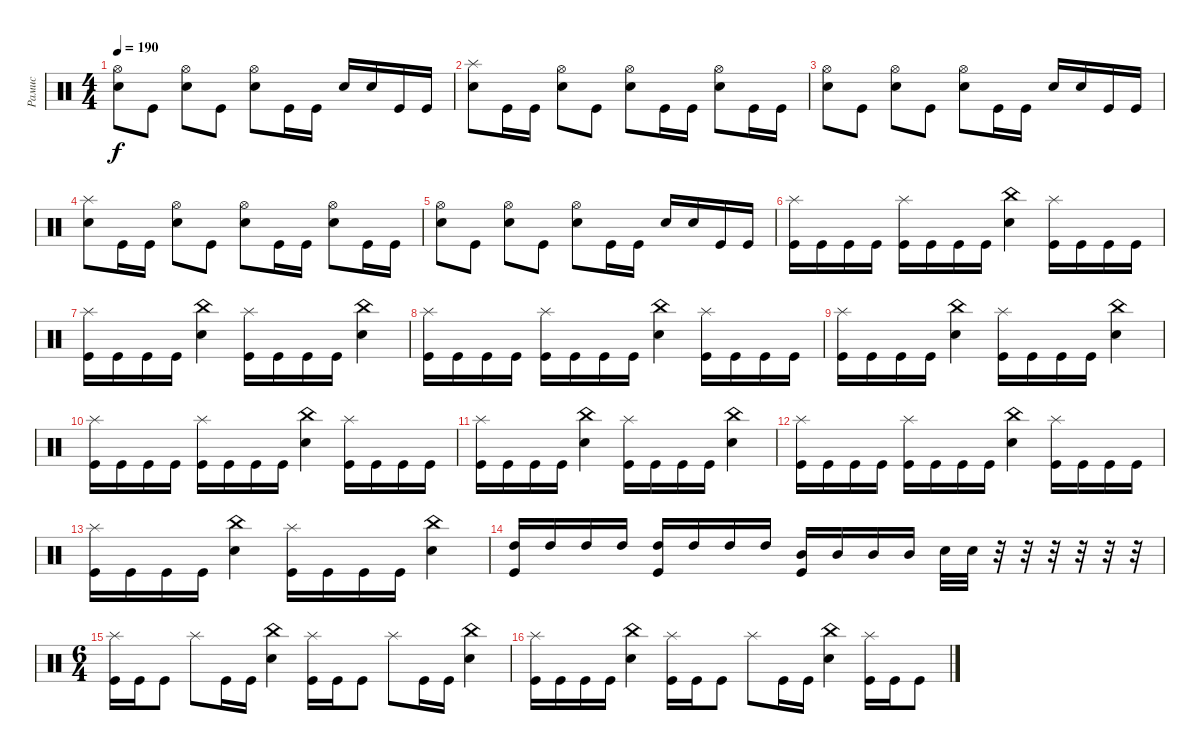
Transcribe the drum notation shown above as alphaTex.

\track ("Рамис" "Рамис") {instrument percussion}
\staff {score}
\articulation defaults
\ts (4 4)
\tempo 190
\clef neutral
\ks c
("Hi-Hat (open)" "Electric Snare (hit)").8{dy f} "Kick (hit)".8 ("Hi-Hat (open)" "Electric Snare (hit)").8 "Kick (hit)".8 ("Hi-Hat (open)" "Electric Snare (hit)").8 "Kick (hit)".16 "Kick (hit)".16 "Electric Snare (hit)".16 "Electric Snare (hit)".16 "Kick (hit)".16 "Kick (hit)".16 |
("Splash (hit)" "Electric Snare (hit)").8 "Kick (hit)".16 "Kick (hit)".16 ("Hi-Hat (open)" "Electric Snare (hit)").8 "Kick (hit)".8 ("Hi-Hat (open)" "Electric Snare (hit)").8 "Kick (hit)".16 "Kick (hit)".16 ("Hi-Hat (open)" "Electric Snare (hit)").8 "Kick (hit)".16 "Kick (hit)".16 |
("Hi-Hat (open)" "Electric Snare (hit)").8 "Kick (hit)".8 ("Hi-Hat (open)" "Electric Snare (hit)").8 "Kick (hit)".8 ("Hi-Hat (open)" "Electric Snare (hit)").8 "Kick (hit)".16 "Kick (hit)".16 "Electric Snare (hit)".16 "Electric Snare (hit)".16 "Kick (hit)".16 "Kick (hit)".16 |
("Splash (hit)" "Electric Snare (hit)").8 "Kick (hit)".16 "Kick (hit)".16 ("Hi-Hat (open)" "Electric Snare (hit)").8 "Kick (hit)".8 ("Hi-Hat (open)" "Electric Snare (hit)").8 "Kick (hit)".16 "Kick (hit)".16 ("Hi-Hat (open)" "Electric Snare (hit)").8 "Kick (hit)".16 "Kick (hit)".16 |
("Hi-Hat (open)" "Electric Snare (hit)").8 "Kick (hit)".8 ("Hi-Hat (open)" "Electric Snare (hit)").8 "Kick (hit)".8 ("Hi-Hat (open)" "Electric Snare (hit)").8 "Kick (hit)".16 "Kick (hit)".16 "Electric Snare (hit)".16 "Electric Snare (hit)".16 "Kick (hit)".16 "Kick (hit)".16 |
("Splash (hit)" "Kick (hit)").16 "Kick (hit)".16 "Kick (hit)".16 "Kick (hit)".16 ("Splash (hit)" "Kick (hit)").16 "Kick (hit)".16 "Kick (hit)".16 "Kick (hit)".16 ("China (hit)" "Electric Snare (hit)").4 ("Splash (hit)" "Kick (hit)").16 "Kick (hit)".16 "Kick (hit)".16 "Kick (hit)".16 |
("Splash (hit)" "Kick (hit)").16 "Kick (hit)".16 "Kick (hit)".16 "Kick (hit)".16 ("China (hit)" "Electric Snare (hit)").4 ("Splash (hit)" "Kick (hit)").16 "Kick (hit)".16 "Kick (hit)".16 "Kick (hit)".16 ("China (hit)" "Electric Snare (hit)").4 |
("Splash (hit)" "Kick (hit)").16 "Kick (hit)".16 "Kick (hit)".16 "Kick (hit)".16 ("Splash (hit)" "Kick (hit)").16 "Kick (hit)".16 "Kick (hit)".16 "Kick (hit)".16 ("China (hit)" "Electric Snare (hit)").4 ("Splash (hit)" "Kick (hit)").16 "Kick (hit)".16 "Kick (hit)".16 "Kick (hit)".16 |
("Splash (hit)" "Kick (hit)").16 "Kick (hit)".16 "Kick (hit)".16 "Kick (hit)".16 ("China (hit)" "Electric Snare (hit)").4 ("Splash (hit)" "Kick (hit)").16 "Kick (hit)".16 "Kick (hit)".16 "Kick (hit)".16 ("China (hit)" "Electric Snare (hit)").4 |
("Splash (hit)" "Kick (hit)").16 "Kick (hit)".16 "Kick (hit)".16 "Kick (hit)".16 ("Splash (hit)" "Kick (hit)").16 "Kick (hit)".16 "Kick (hit)".16 "Kick (hit)".16 ("China (hit)" "Electric Snare (hit)").4 ("Splash (hit)" "Kick (hit)").16 "Kick (hit)".16 "Kick (hit)".16 "Kick (hit)".16 |
("Splash (hit)" "Kick (hit)").16 "Kick (hit)".16 "Kick (hit)".16 "Kick (hit)".16 ("China (hit)" "Electric Snare (hit)").4 ("Splash (hit)" "Kick (hit)").16 "Kick (hit)".16 "Kick (hit)".16 "Kick (hit)".16 ("China (hit)" "Electric Snare (hit)").4 |
("Splash (hit)" "Kick (hit)").16 "Kick (hit)".16 "Kick (hit)".16 "Kick (hit)".16 ("Splash (hit)" "Kick (hit)").16 "Kick (hit)".16 "Kick (hit)".16 "Kick (hit)".16 ("China (hit)" "Electric Snare (hit)").4 ("Splash (hit)" "Kick (hit)").16 "Kick (hit)".16 "Kick (hit)".16 "Kick (hit)".16 |
("Splash (hit)" "Kick (hit)").16 "Kick (hit)".16 "Kick (hit)".16 "Kick (hit)".16 ("China (hit)" "Electric Snare (hit)").4 ("Splash (hit)" "Kick (hit)").16 "Kick (hit)".16 "Kick (hit)".16 "Kick (hit)".16 ("China (hit)" "Electric Snare (hit)").4 |
("High Tom (hit)" "Kick (hit)").16 "High Tom (hit)".16 "High Tom (hit)".16 "High Tom (hit)".16 ("High Tom (hit)" "Kick (hit)").16 "High Tom (hit)".16 "High Tom (hit)".16 "High Tom (hit)".16 ("Mid Tom (hit)" "Kick (hit)").16 "Mid Tom (hit)".16 "Mid Tom (hit)".16 "Mid Tom (hit)".16 "Electric Snare (hit)".32 "Electric Snare (hit)".32 r.32 r.32 r.32 r.32 r.32 r.32 |
\ts (6 4)
("Splash (hit)" "Kick (hit)").16 "Kick (hit)".16 "Kick (hit)".8 "Splash (hit)".8 "Kick (hit)".16 "Kick (hit)".16 ("China (hit)" "Electric Snare (hit)").4 ("Splash (hit)" "Kick (hit)").16 "Kick (hit)".16 "Kick (hit)".8 "Splash (hit)".8 "Kick (hit)".16 "Kick (hit)".16 ("China (hit)" "Electric Snare (hit)").4 |
("Splash (hit)" "Kick (hit)").16 "Kick (hit)".16 "Kick (hit)".16 "Kick (hit)".16 ("China (hit)" "Electric Snare (hit)").4 ("Splash (hit)" "Kick (hit)").16 "Kick (hit)".16 "Kick (hit)".8 "Splash (hit)".8 "Kick (hit)".16 "Kick (hit)".16 ("China (hit)" "Electric Snare (hit)").4 ("Splash (hit)" "Kick (hit)").16 "Kick (hit)".16 "Kick (hit)".8
